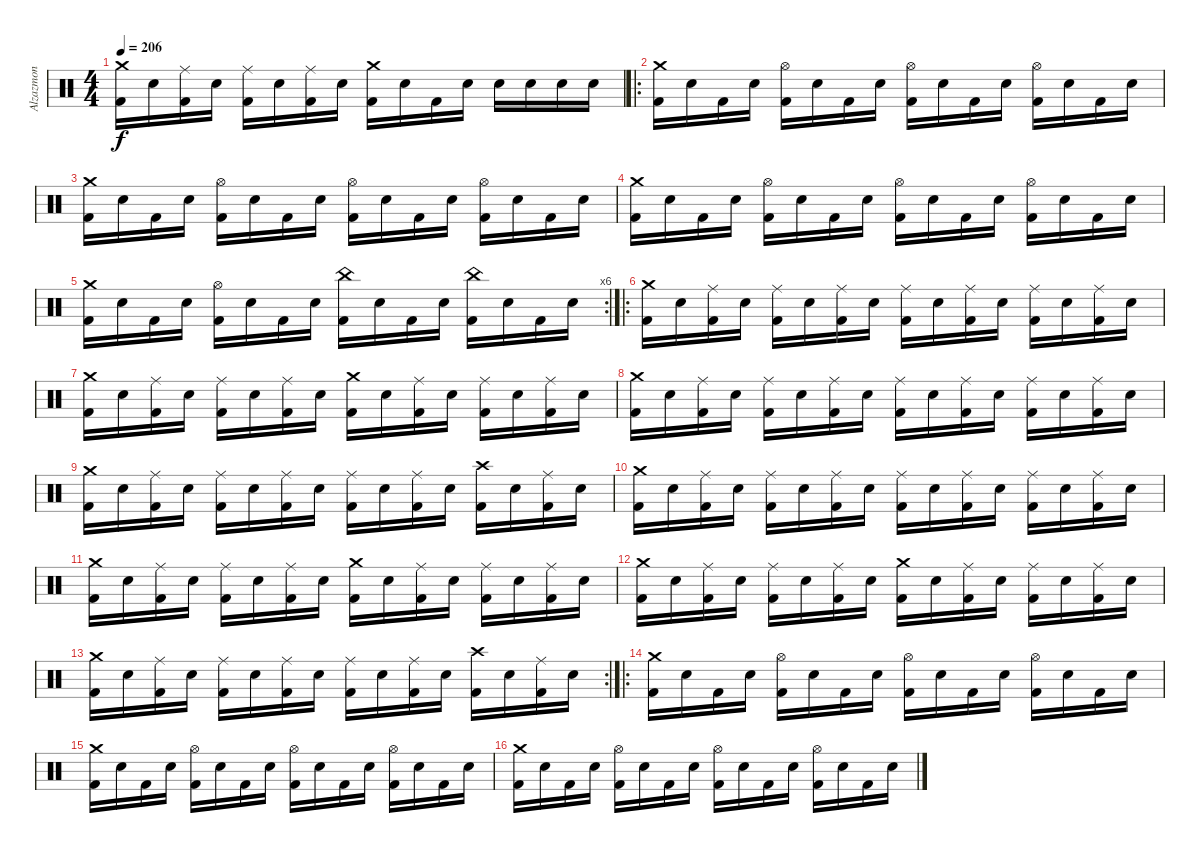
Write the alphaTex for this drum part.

\track ("Alzazmon" "Alzazmon") {instrument percussion}
\staff {score}
\articulation defaults
\ts (4 4)
\tempo 206
\clef neutral
\ks c
("Crash medium (hit)" "Kick (hit) 2").16{dy f} "Snare (hit) 2".16 ("Ride (middle)" "Kick (hit) 2").16 "Snare (hit) 2".16 ("Ride (middle)" "Kick (hit) 2").16 "Snare (hit) 2".16 ("Ride (middle)" "Kick (hit) 2").16 "Snare (hit) 2".16 ("Crash medium (hit)" "Kick (hit) 2").16 "Snare (hit) 2".16 "Kick (hit) 2".16 "Snare (hit) 2".16 "Snare (hit) 2".16 "Snare (hit) 2".16 "Snare (hit) 2".16 "Snare (hit) 2".16 |
\ro
("Crash medium (hit)" "Kick (hit) 2").16 "Snare (hit) 2".16 "Kick (hit) 2".16 "Snare (hit) 2".16 ("Hi-Hat (open)" "Kick (hit) 2").16 "Snare (hit) 2".16 "Kick (hit) 2".16 "Snare (hit) 2".16 ("Hi-Hat (open)" "Kick (hit) 2").16 "Snare (hit) 2".16 "Kick (hit) 2".16 "Snare (hit) 2".16 ("Hi-Hat (open)" "Kick (hit) 2").16 "Snare (hit) 2".16 "Kick (hit) 2".16 "Snare (hit) 2".16 |
("Crash medium (hit)" "Kick (hit) 2").16 "Snare (hit) 2".16 "Kick (hit) 2".16 "Snare (hit) 2".16 ("Hi-Hat (open)" "Kick (hit) 2").16 "Snare (hit) 2".16 "Kick (hit) 2".16 "Snare (hit) 2".16 ("Hi-Hat (open)" "Kick (hit) 2").16 "Snare (hit) 2".16 "Kick (hit) 2".16 "Snare (hit) 2".16 ("Hi-Hat (open)" "Kick (hit) 2").16 "Snare (hit) 2".16 "Kick (hit) 2".16 "Snare (hit) 2".16 |
("Crash medium (hit)" "Kick (hit) 2").16 "Snare (hit) 2".16 "Kick (hit) 2".16 "Snare (hit) 2".16 ("Hi-Hat (open)" "Kick (hit) 2").16 "Snare (hit) 2".16 "Kick (hit) 2".16 "Snare (hit) 2".16 ("Hi-Hat (open)" "Kick (hit) 2").16 "Snare (hit) 2".16 "Kick (hit) 2".16 "Snare (hit) 2".16 ("Hi-Hat (open)" "Kick (hit) 2").16 "Snare (hit) 2".16 "Kick (hit) 2".16 "Snare (hit) 2".16 |
\rc 6
("Crash medium (hit)" "Kick (hit) 2").16 "Snare (hit) 2".16 "Kick (hit) 2".16 "Snare (hit) 2".16 ("Hi-Hat (open)" "Kick (hit) 2").16 "Snare (hit) 2".16 "Kick (hit) 2".16 "Snare (hit) 2".16 ("China (hit)" "Kick (hit) 2").16 "Snare (hit) 2".16 "Kick (hit) 2".16 "Snare (hit) 2".16 ("China (hit)" "Kick (hit) 2").16 "Snare (hit) 2".16 "Kick (hit) 2".16 "Snare (hit) 2".16 |
\ro
("Crash medium (hit)" "Kick (hit) 2").16 "Snare (hit) 2".16 ("Ride (middle)" "Kick (hit) 2").16 "Snare (hit) 2".16 ("Ride (middle)" "Kick (hit) 2").16 "Snare (hit) 2".16 ("Ride (middle)" "Kick (hit) 2").16 "Snare (hit) 2".16 ("Ride (middle)" "Kick (hit) 2").16 "Snare (hit) 2".16 ("Ride (middle)" "Kick (hit) 2").16 "Snare (hit) 2".16 ("Ride (middle)" "Kick (hit) 2").16 "Snare (hit) 2".16 ("Ride (middle)" "Kick (hit) 2").16 "Snare (hit) 2".16 |
("Crash medium (hit)" "Kick (hit) 2").16 "Snare (hit) 2".16 ("Ride (middle)" "Kick (hit) 2").16 "Snare (hit) 2".16 ("Ride (middle)" "Kick (hit) 2").16 "Snare (hit) 2".16 ("Ride (middle)" "Kick (hit) 2").16 "Snare (hit) 2".16 ("Crash medium (hit)" "Kick (hit) 2").16 "Snare (hit) 2".16 ("Ride (middle)" "Kick (hit) 2").16 "Snare (hit) 2".16 ("Ride (middle)" "Kick (hit) 2").16 "Snare (hit) 2".16 ("Ride (middle)" "Kick (hit) 2").16 "Snare (hit) 2".16 |
("Crash medium (hit)" "Kick (hit) 2").16 "Snare (hit) 2".16 ("Ride (middle)" "Kick (hit) 2").16 "Snare (hit) 2".16 ("Ride (middle)" "Kick (hit) 2").16 "Snare (hit) 2".16 ("Ride (middle)" "Kick (hit) 2").16 "Snare (hit) 2".16 ("Ride (middle)" "Kick (hit) 2").16 "Snare (hit) 2".16 ("Ride (middle)" "Kick (hit) 2").16 "Snare (hit) 2".16 ("Ride (middle)" "Kick (hit) 2").16 "Snare (hit) 2".16 ("Ride (middle)" "Kick (hit) 2").16 "Snare (hit) 2".16 |
("Crash medium (hit)" "Kick (hit) 2").16 "Snare (hit) 2".16 ("Ride (middle)" "Kick (hit) 2").16 "Snare (hit) 2".16 ("Ride (middle)" "Kick (hit) 2").16 "Snare (hit) 2".16 ("Ride (middle)" "Kick (hit) 2").16 "Snare (hit) 2".16 ("Ride (middle)" "Kick (hit) 2").16 "Snare (hit) 2".16 ("Ride (middle)" "Kick (hit) 2").16 "Snare (hit) 2".16 ("Crash high (hit)" "Kick (hit) 2").16 "Snare (hit) 2".16 ("Ride (middle)" "Kick (hit) 2").16 "Snare (hit) 2".16 |
("Crash medium (hit)" "Kick (hit) 2").16 "Snare (hit) 2".16 ("Ride (middle)" "Kick (hit) 2").16 "Snare (hit) 2".16 ("Ride (middle)" "Kick (hit) 2").16 "Snare (hit) 2".16 ("Ride (middle)" "Kick (hit) 2").16 "Snare (hit) 2".16 ("Ride (middle)" "Kick (hit) 2").16 "Snare (hit) 2".16 ("Ride (middle)" "Kick (hit) 2").16 "Snare (hit) 2".16 ("Ride (middle)" "Kick (hit) 2").16 "Snare (hit) 2".16 ("Ride (middle)" "Kick (hit) 2").16 "Snare (hit) 2".16 |
("Crash medium (hit)" "Kick (hit) 2").16 "Snare (hit) 2".16 ("Ride (middle)" "Kick (hit) 2").16 "Snare (hit) 2".16 ("Ride (middle)" "Kick (hit) 2").16 "Snare (hit) 2".16 ("Ride (middle)" "Kick (hit) 2").16 "Snare (hit) 2".16 ("Crash medium (hit)" "Kick (hit) 2").16 "Snare (hit) 2".16 ("Ride (middle)" "Kick (hit) 2").16 "Snare (hit) 2".16 ("Ride (middle)" "Kick (hit) 2").16 "Snare (hit) 2".16 ("Ride (middle)" "Kick (hit) 2").16 "Snare (hit) 2".16 |
("Crash medium (hit)" "Kick (hit) 2").16 "Snare (hit) 2".16 ("Ride (middle)" "Kick (hit) 2").16 "Snare (hit) 2".16 ("Ride (middle)" "Kick (hit) 2").16 "Snare (hit) 2".16 ("Ride (middle)" "Kick (hit) 2").16 "Snare (hit) 2".16 ("Crash medium (hit)" "Kick (hit) 2").16 "Snare (hit) 2".16 ("Ride (middle)" "Kick (hit) 2").16 "Snare (hit) 2".16 ("Ride (middle)" "Kick (hit) 2").16 "Snare (hit) 2".16 ("Ride (middle)" "Kick (hit) 2").16 "Snare (hit) 2".16 |
\rc 2
("Crash medium (hit)" "Kick (hit) 2").16 "Snare (hit) 2".16 ("Ride (middle)" "Kick (hit) 2").16 "Snare (hit) 2".16 ("Ride (middle)" "Kick (hit) 2").16 "Snare (hit) 2".16 ("Ride (middle)" "Kick (hit) 2").16 "Snare (hit) 2".16 ("Ride (middle)" "Kick (hit) 2").16 "Snare (hit) 2".16 ("Ride (middle)" "Kick (hit) 2").16 "Snare (hit) 2".16 ("Crash high (hit)" "Kick (hit) 2").16 "Snare (hit) 2".16 ("Ride (middle)" "Kick (hit) 2").16 "Snare (hit) 2".16 |
\ro
("Crash medium (hit)" "Kick (hit) 2").16 "Snare (hit) 2".16 "Kick (hit) 2".16 "Snare (hit) 2".16 ("Hi-Hat (open)" "Kick (hit) 2").16 "Snare (hit) 2".16 "Kick (hit) 2".16 "Snare (hit) 2".16 ("Hi-Hat (open)" "Kick (hit) 2").16 "Snare (hit) 2".16 "Kick (hit) 2".16 "Snare (hit) 2".16 ("Hi-Hat (open)" "Kick (hit) 2").16 "Snare (hit) 2".16 "Kick (hit) 2".16 "Snare (hit) 2".16 |
("Crash medium (hit)" "Kick (hit) 2").16 "Snare (hit) 2".16 "Kick (hit) 2".16 "Snare (hit) 2".16 ("Hi-Hat (open)" "Kick (hit) 2").16 "Snare (hit) 2".16 "Kick (hit) 2".16 "Snare (hit) 2".16 ("Hi-Hat (open)" "Kick (hit) 2").16 "Snare (hit) 2".16 "Kick (hit) 2".16 "Snare (hit) 2".16 ("Hi-Hat (open)" "Kick (hit) 2").16 "Snare (hit) 2".16 "Kick (hit) 2".16 "Snare (hit) 2".16 |
("Crash medium (hit)" "Kick (hit) 2").16 "Snare (hit) 2".16 "Kick (hit) 2".16 "Snare (hit) 2".16 ("Hi-Hat (open)" "Kick (hit) 2").16 "Snare (hit) 2".16 "Kick (hit) 2".16 "Snare (hit) 2".16 ("Hi-Hat (open)" "Kick (hit) 2").16 "Snare (hit) 2".16 "Kick (hit) 2".16 "Snare (hit) 2".16 ("Hi-Hat (open)" "Kick (hit) 2").16 "Snare (hit) 2".16 "Kick (hit) 2".16 "Snare (hit) 2".16
